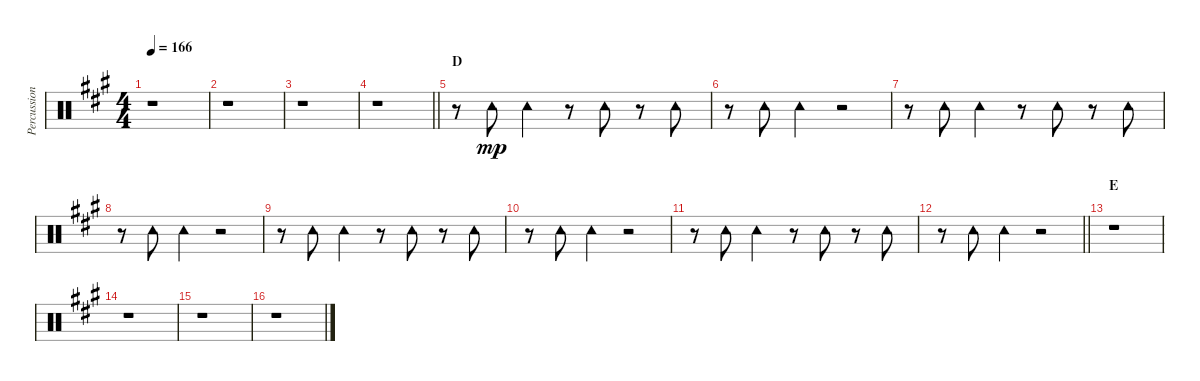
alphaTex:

\track ("Percussion I" "Percussion") {instrument percussion}
\staff {score}
\articulation defaults
\ts (4 4)
\tempo 166
\clef neutral
\ks a
r.1{dy mf} |
r.1 |
r.1 |
\barLineRight lightlight
r.1 |
\section ("" "D")
r.8 "Tambourine (hit)".8{dy mp} "Tambourine (hit)".4 r.8 "Tambourine (hit)".8 r.8 "Tambourine (hit)".8 |
r.8 "Tambourine (hit)".8 "Tambourine (hit)".4 r.2 |
r.8 "Tambourine (hit)".8 "Tambourine (hit)".4 r.8 "Tambourine (hit)".8 r.8 "Tambourine (hit)".8 |
r.8 "Tambourine (hit)".8 "Tambourine (hit)".4 r.2 |
r.8 "Tambourine (hit)".8 "Tambourine (hit)".4 r.8 "Tambourine (hit)".8 r.8 "Tambourine (hit)".8 |
r.8 "Tambourine (hit)".8 "Tambourine (hit)".4 r.2 |
r.8 "Tambourine (hit)".8 "Tambourine (hit)".4 r.8 "Tambourine (hit)".8 r.8 "Tambourine (hit)".8 |
\barLineRight lightlight
r.8 "Tambourine (hit)".8 "Tambourine (hit)".4 r.2 |
\section ("" "E")
r.1 |
r.1 |
r.1 |
r.1
